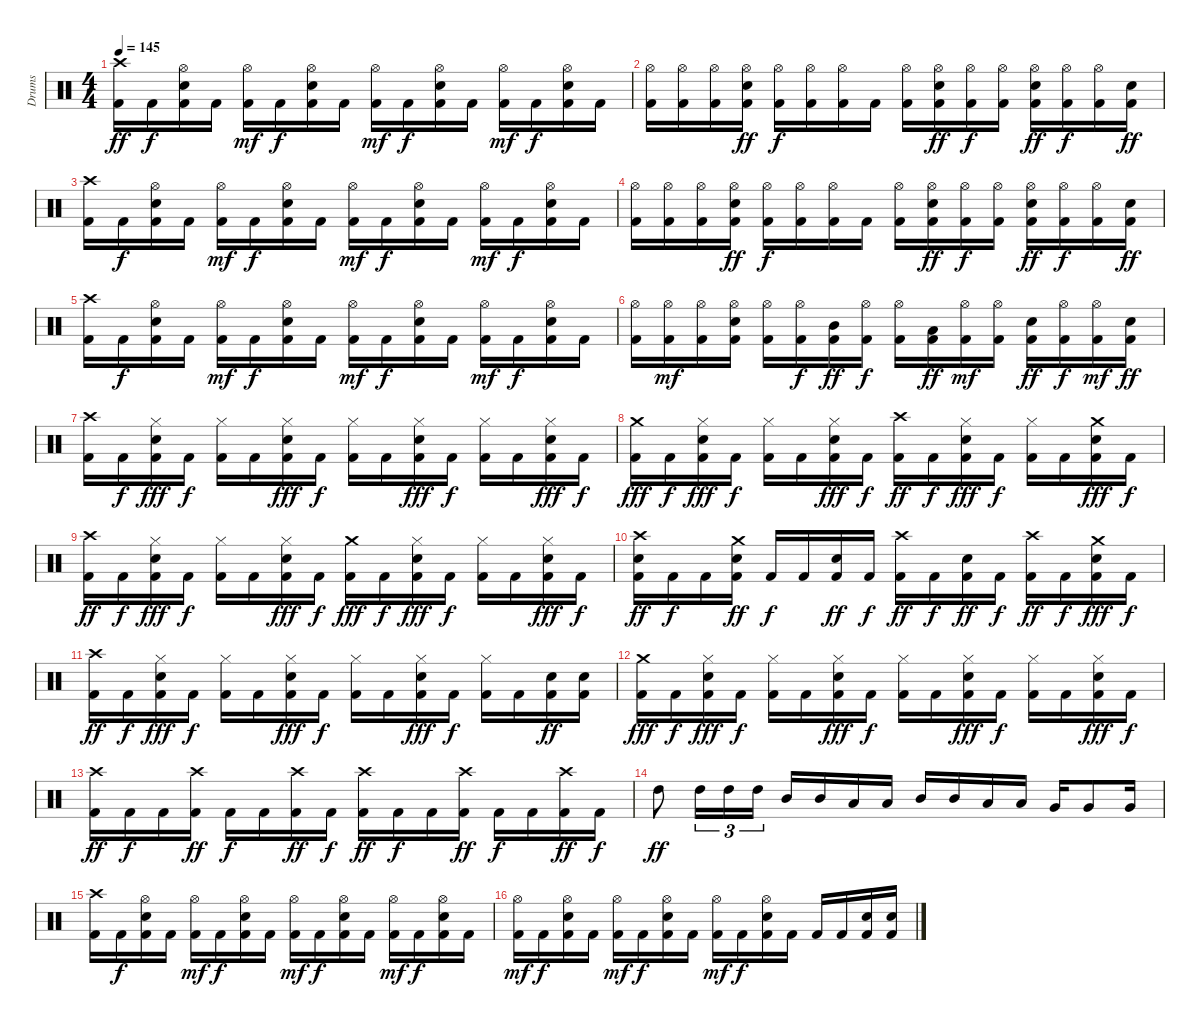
\track ("Drums" "Drums") {instrument percussion}
\staff {score}
\articulation defaults
\ts (4 4)
\tempo 145
\clef neutral
\ks c
("Crash high (hit)" "Kick (hit) 2").16{dy ff} "Kick (hit) 2".16{dy f} ("Snare (hit) 2" "Hi-Hat (open)" "Kick (hit) 2").16 "Kick (hit) 2".16 ("Hi-Hat (open)" "Kick (hit) 2").16{dy mf} "Kick (hit) 2".16{dy f} ("Snare (hit) 2" "Hi-Hat (open)" "Kick (hit) 2").16 "Kick (hit) 2".16 ("Hi-Hat (open)" "Kick (hit) 2").16{dy mf} "Kick (hit) 2".16{dy f} ("Snare (hit) 2" "Hi-Hat (open)" "Kick (hit) 2").16 "Kick (hit) 2".16 ("Hi-Hat (open)" "Kick (hit) 2").16{dy mf} "Kick (hit) 2".16{dy f} ("Snare (hit) 2" "Hi-Hat (open)" "Kick (hit) 2").16 "Kick (hit) 2".16 |
("Hi-Hat (open)" "Kick (hit) 2").16 ("Hi-Hat (open)" "Kick (hit) 2").16 ("Hi-Hat (open)" "Kick (hit) 2").16 ("Snare (hit) 2" "Hi-Hat (open)" "Kick (hit) 2").16{dy ff} ("Hi-Hat (open)" "Kick (hit) 2").16{dy f} ("Hi-Hat (open)" "Kick (hit) 2").16 ("Hi-Hat (open)" "Kick (hit) 2").16 "Kick (hit) 2".16 ("Hi-Hat (open)" "Kick (hit) 2").16 ("Snare (hit) 2" "Hi-Hat (open)" "Kick (hit) 2").16{dy ff} ("Hi-Hat (open)" "Kick (hit) 2").16{dy f} ("Hi-Hat (open)" "Kick (hit) 2").16 ("Snare (hit) 2" "Hi-Hat (open)" "Kick (hit) 2").16{dy ff} ("Hi-Hat (open)" "Kick (hit) 2").16{dy f} ("Hi-Hat (open)" "Kick (hit) 2").16 ("Snare (hit) 2" "Kick (hit) 2").16{dy ff} |
("Kick (hit) 2" "Crash high (hit)").16 "Kick (hit) 2".16{dy f} ("Kick (hit) 2" "Snare (hit) 2" "Hi-Hat (open)").16 "Kick (hit) 2".16 ("Kick (hit) 2" "Hi-Hat (open)").16{dy mf} "Kick (hit) 2".16{dy f} ("Kick (hit) 2" "Snare (hit) 2" "Hi-Hat (open)").16 "Kick (hit) 2".16 ("Kick (hit) 2" "Hi-Hat (open)").16{dy mf} "Kick (hit) 2".16{dy f} ("Kick (hit) 2" "Snare (hit) 2" "Hi-Hat (open)").16 "Kick (hit) 2".16 ("Kick (hit) 2" "Hi-Hat (open)").16{dy mf} "Kick (hit) 2".16{dy f} ("Kick (hit) 2" "Snare (hit) 2" "Hi-Hat (open)").16 "Kick (hit) 2".16 |
("Hi-Hat (open)" "Kick (hit) 2").16 ("Hi-Hat (open)" "Kick (hit) 2").16 ("Hi-Hat (open)" "Kick (hit) 2").16 ("Snare (hit) 2" "Hi-Hat (open)" "Kick (hit) 2").16{dy ff} ("Hi-Hat (open)" "Kick (hit) 2").16{dy f} ("Hi-Hat (open)" "Kick (hit) 2").16 ("Hi-Hat (open)" "Kick (hit) 2").16 "Kick (hit) 2".16 ("Hi-Hat (open)" "Kick (hit) 2").16 ("Snare (hit) 2" "Hi-Hat (open)" "Kick (hit) 2").16{dy ff} ("Hi-Hat (open)" "Kick (hit) 2").16{dy f} ("Hi-Hat (open)" "Kick (hit) 2").16 ("Snare (hit) 2" "Hi-Hat (open)" "Kick (hit) 2").16{dy ff} ("Hi-Hat (open)" "Kick (hit) 2").16{dy f} ("Hi-Hat (open)" "Kick (hit) 2").16 ("Snare (hit) 2" "Kick (hit) 2").16{dy ff} |
("Crash high (hit)" "Kick (hit) 2").16 "Kick (hit) 2".16{dy f} ("Snare (hit) 2" "Hi-Hat (open)" "Kick (hit) 2").16 "Kick (hit) 2".16 ("Hi-Hat (open)" "Kick (hit) 2").16{dy mf} "Kick (hit) 2".16{dy f} ("Snare (hit) 2" "Hi-Hat (open)" "Kick (hit) 2").16 "Kick (hit) 2".16 ("Hi-Hat (open)" "Kick (hit) 2").16{dy mf} "Kick (hit) 2".16{dy f} ("Snare (hit) 2" "Hi-Hat (open)" "Kick (hit) 2").16 "Kick (hit) 2".16 ("Hi-Hat (open)" "Kick (hit) 2").16{dy mf} "Kick (hit) 2".16{dy f} ("Snare (hit) 2" "Hi-Hat (open)" "Kick (hit) 2").16 "Kick (hit) 2".16 |
("Hi-Hat (open)" "Kick (hit) 2").16 ("Hi-Hat (open)" "Kick (hit) 2").16{dy mf} ("Hi-Hat (open)" "Kick (hit) 2").16 ("Snare (hit) 2" "Hi-Hat (open)" "Kick (hit) 2").16 ("Hi-Hat (open)" "Kick (hit) 2").16 ("Hi-Hat (open)" "Kick (hit) 2").16{dy f} ("Mid Tom (hit)" "Kick (hit) 2").16{dy ff} ("Hi-Hat (open)" "Kick (hit) 2").16{dy f} ("Hi-Hat (open)" "Kick (hit) 2").16 ("Low Tom (hit)" "Kick (hit) 2").16{dy ff} ("Hi-Hat (open)" "Kick (hit) 2").16{dy mf} ("Hi-Hat (open)" "Kick (hit) 2").16 ("Snare (hit) 2" "Kick (hit) 2").16{dy ff} ("Hi-Hat (open)" "Kick (hit) 2").16{dy f} ("Hi-Hat (open)" "Kick (hit) 2").16{dy mf} ("Snare (hit) 2" "Kick (hit) 2").16{dy ff} |
("Crash high (hit)" "Kick (hit) 2").16 "Kick (hit) 2".16{dy f} ("Snare (hit) 2" "Hi-Hat (closed)" "Kick (hit) 2").16{dy fff} "Kick (hit) 2".16{dy f} ("Hi-Hat (closed)" "Kick (hit) 2").16 "Kick (hit) 2".16 ("Snare (hit) 2" "Hi-Hat (closed)" "Kick (hit) 2").16{dy fff} "Kick (hit) 2".16{dy f} ("Hi-Hat (closed)" "Kick (hit) 2").16 "Kick (hit) 2".16 ("Snare (hit) 2" "Hi-Hat (closed)" "Kick (hit) 2").16{dy fff} "Kick (hit) 2".16{dy f} ("Hi-Hat (closed)" "Kick (hit) 2").16 "Kick (hit) 2".16 ("Snare (hit) 2" "Hi-Hat (closed)" "Kick (hit) 2").16{dy fff} "Kick (hit) 2".16{dy f} |
("Crash medium (hit)" "Kick (hit) 2").16{dy fff} "Kick (hit) 2".16{dy f} ("Snare (hit) 2" "Hi-Hat (closed)" "Kick (hit) 2").16{dy fff} "Kick (hit) 2".16{dy f} ("Hi-Hat (closed)" "Kick (hit) 2").16 "Kick (hit) 2".16 ("Snare (hit) 2" "Hi-Hat (closed)" "Kick (hit) 2").16{dy fff} "Kick (hit) 2".16{dy f} ("Crash high (hit)" "Kick (hit) 2").16{dy ff} "Kick (hit) 2".16{dy f} ("Snare (hit) 2" "Hi-Hat (closed)" "Kick (hit) 2").16{dy fff} "Kick (hit) 2".16{dy f} ("Hi-Hat (closed)" "Kick (hit) 2").16 "Kick (hit) 2".16 ("Snare (hit) 2" "Crash medium (hit)" "Kick (hit) 2").16{dy fff} "Kick (hit) 2".16{dy f} |
("Kick (hit) 2" "Crash high (hit)").16{dy ff} "Kick (hit) 2".16{dy f} ("Kick (hit) 2" "Snare (hit) 2" "Hi-Hat (closed)").16{dy fff} "Kick (hit) 2".16{dy f} ("Kick (hit) 2" "Hi-Hat (closed)").16 "Kick (hit) 2".16 ("Kick (hit) 2" "Snare (hit) 2" "Hi-Hat (closed)").16{dy fff} "Kick (hit) 2".16{dy f} ("Kick (hit) 2" "Crash medium (hit)").16{dy fff} "Kick (hit) 2".16{dy f} ("Kick (hit) 2" "Snare (hit) 2" "Hi-Hat (closed)").16{dy fff} "Kick (hit) 2".16{dy f} ("Kick (hit) 2" "Hi-Hat (closed)").16 "Kick (hit) 2".16 ("Kick (hit) 2" "Snare (hit) 2" "Hi-Hat (closed)").16{dy fff} "Kick (hit) 2".16{dy f} |
("Crash high (hit)" "Snare (hit) 2" "Kick (hit) 2").16{dy ff} "Kick (hit) 2".16{dy f} "Kick (hit) 2".16 ("Crash medium (hit)" "Snare (hit) 2" "Kick (hit) 2").16{dy ff} "Kick (hit) 2".16{dy f} "Kick (hit) 2".16 ("Snare (hit) 2" "Kick (hit) 2").16{dy ff} "Kick (hit) 2".16{dy f} ("Crash high (hit)" "Kick (hit) 2").16{dy ff} "Kick (hit) 2".16{dy f} ("Snare (hit) 2" "Kick (hit) 2").16{dy ff} "Kick (hit) 2".16{dy f} ("Crash high (hit)" "Kick (hit) 2").16{dy ff} "Kick (hit) 2".16{dy f} ("Snare (hit) 2" "Crash medium (hit)" "Kick (hit) 2").16{dy fff} "Kick (hit) 2".16{dy f} |
("Kick (hit) 2" "Crash high (hit)").16{dy ff} "Kick (hit) 2".16{dy f} ("Kick (hit) 2" "Snare (hit) 2" "Hi-Hat (closed)").16{dy fff} "Kick (hit) 2".16{dy f} ("Kick (hit) 2" "Hi-Hat (closed)").16 "Kick (hit) 2".16 ("Kick (hit) 2" "Snare (hit) 2" "Hi-Hat (closed)").16{dy fff} "Kick (hit) 2".16{dy f} ("Kick (hit) 2" "Hi-Hat (closed)").16 "Kick (hit) 2".16 ("Kick (hit) 2" "Snare (hit) 2" "Hi-Hat (closed)").16{dy fff} "Kick (hit) 2".16{dy f} ("Kick (hit) 2" "Hi-Hat (closed)").16 "Kick (hit) 2".16 ("Kick (hit) 2" "Snare (hit) 2").16{dy ff} ("Kick (hit) 2" "Snare (hit) 2").16 |
("Crash medium (hit)" "Kick (hit) 2").16{dy fff} "Kick (hit) 2".16{dy f} ("Snare (hit) 2" "Hi-Hat (closed)" "Kick (hit) 2").16{dy fff} "Kick (hit) 2".16{dy f} ("Hi-Hat (closed)" "Kick (hit) 2").16 "Kick (hit) 2".16 ("Snare (hit) 2" "Hi-Hat (closed)" "Kick (hit) 2").16{dy fff} "Kick (hit) 2".16{dy f} ("Hi-Hat (closed)" "Kick (hit) 2").16 "Kick (hit) 2".16 ("Snare (hit) 2" "Hi-Hat (closed)" "Kick (hit) 2").16{dy fff} "Kick (hit) 2".16{dy f} ("Hi-Hat (closed)" "Kick (hit) 2").16 "Kick (hit) 2".16 ("Snare (hit) 2" "Hi-Hat (closed)" "Kick (hit) 2").16{dy fff} "Kick (hit) 2".16{dy f} |
("Kick (hit) 2" "Crash high (hit)").16{dy ff} "Kick (hit) 2".16{dy f} "Kick (hit) 2".16 ("Kick (hit) 2" "Crash high (hit)").16{dy ff} "Kick (hit) 2".16{dy f} "Kick (hit) 2".16 ("Kick (hit) 2" "Crash high (hit)").16{dy ff} "Kick (hit) 2".16{dy f} ("Kick (hit) 2" "Crash high (hit)").16{dy ff} "Kick (hit) 2".16{dy f} "Kick (hit) 2".16 ("Kick (hit) 2" "Crash high (hit)").16{dy ff} "Kick (hit) 2".16{dy f} "Kick (hit) 2".16 ("Kick (hit) 2" "Crash high (hit)").16{dy ff} "Kick (hit) 2".16{dy f} |
"High Tom (hit)".8{dy ff} "High Tom (hit)".16{tu (3 2)} "High Tom (hit)".16{tu (3 2)} "High Tom (hit)".16{tu (3 2)} "Mid Tom (hit)".16 "Mid Tom (hit)".16 "Low Tom (hit)".16 "Low Tom (hit)".16 "Mid Tom (hit)".16 "Mid Tom (hit)".16 "Low Tom (hit)".16 "Low Tom (hit)".16 "Very Low Tom (hit)".16 "Very Low Tom (hit)".8 "Very Low Tom (hit)".16 |
("Crash high (hit)" "Kick (hit) 2").16 "Kick (hit) 2".16{dy f} ("Snare (hit) 2" "Hi-Hat (open)" "Kick (hit) 2").16 "Kick (hit) 2".16 ("Hi-Hat (open)" "Kick (hit) 2").16{dy mf} "Kick (hit) 2".16{dy f} ("Snare (hit) 2" "Hi-Hat (open)" "Kick (hit) 2").16 "Kick (hit) 2".16 ("Hi-Hat (open)" "Kick (hit) 2").16{dy mf} "Kick (hit) 2".16{dy f} ("Snare (hit) 2" "Hi-Hat (open)" "Kick (hit) 2").16 "Kick (hit) 2".16 ("Hi-Hat (open)" "Kick (hit) 2").16{dy mf} "Kick (hit) 2".16{dy f} ("Snare (hit) 2" "Hi-Hat (open)" "Kick (hit) 2").16 "Kick (hit) 2".16 |
("Hi-Hat (open)" "Kick (hit) 2").16{dy mf} "Kick (hit) 2".16{dy f} ("Snare (hit) 2" "Hi-Hat (open)" "Kick (hit) 2").16 "Kick (hit) 2".16 ("Hi-Hat (open)" "Kick (hit) 2").16{dy mf} "Kick (hit) 2".16{dy f} ("Snare (hit) 2" "Hi-Hat (open)" "Kick (hit) 2").16 "Kick (hit) 2".16 ("Hi-Hat (open)" "Kick (hit) 2").16{dy mf} "Kick (hit) 2".16{dy f} ("Snare (hit) 2" "Hi-Hat (open)" "Kick (hit) 2").16 "Kick (hit) 2".16 "Kick (hit) 2".16 "Kick (hit) 2".16 ("Snare (hit) 2" "Kick (hit) 2").16 ("Snare (hit) 2" "Kick (hit) 2").16
